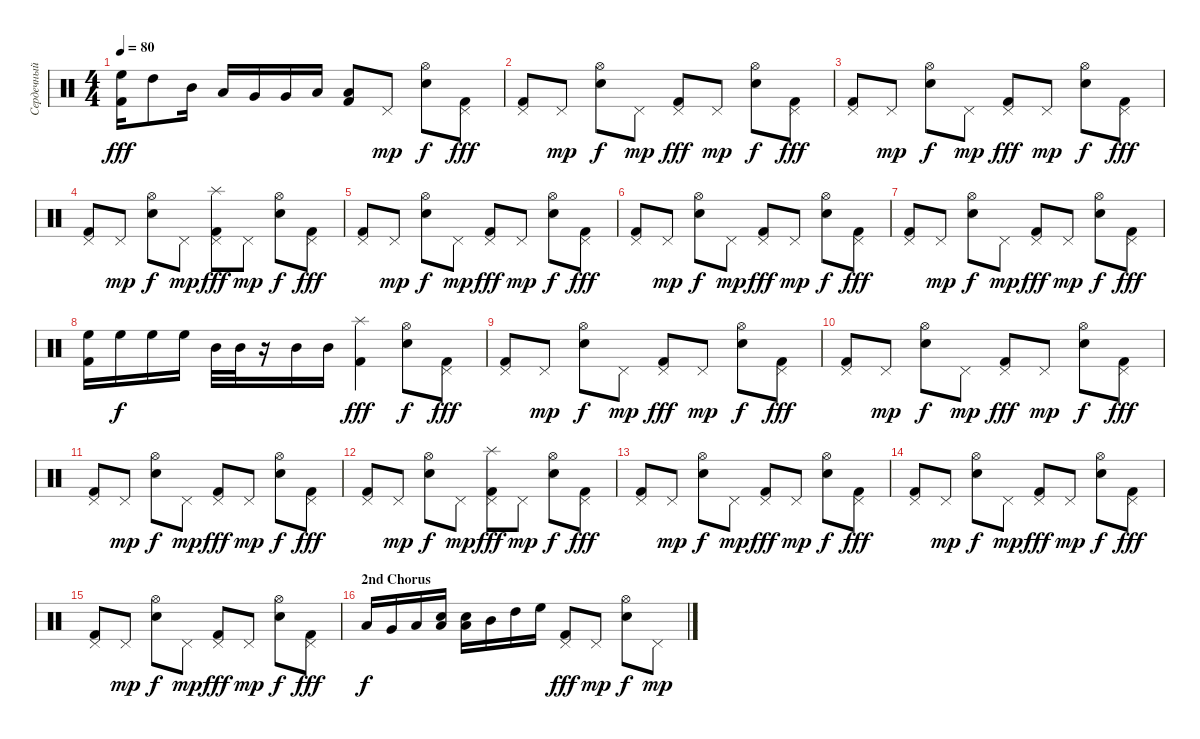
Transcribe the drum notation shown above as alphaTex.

\track ("Сердечный (Ударные)" "Сердечный ") {instrument percussion}
\staff {score}
\articulation defaults
\ts (4 4)
\tempo 80
\clef neutral
\ks c
("High Floor Tom (hit)" "Kick (hit) 2").16{dy fff} "High Tom (hit)".8 "Mid Tom (hit)".16 "Low Tom (hit)".16 "Very Low Tom (hit)".16 "Very Low Tom (hit)".16 "Low Floor Tom (hit)".16 ("Low Floor Tom (hit)" "Kick (hit) 2").8 "Pedal Hi-Hat (hit)".8{dy mp} ("Hi-Hat (open)" "Electric Snare (hit)").8{dy f} ("Pedal Hi-Hat (hit)" "Kick (hit) 2").8{dy fff} |
("Pedal Hi-Hat (hit)" "Kick (hit) 2").8 "Pedal Hi-Hat (hit)".8{dy mp} ("Hi-Hat (open)" "Electric Snare (hit)").8{dy f} "Pedal Hi-Hat (hit)".8{dy mp} ("Pedal Hi-Hat (hit)" "Kick (hit) 2").8{dy fff} "Pedal Hi-Hat (hit)".8{dy mp} ("Hi-Hat (open)" "Electric Snare (hit)").8{dy f} ("Pedal Hi-Hat (hit)" "Kick (hit) 2").8{dy fff} |
("Pedal Hi-Hat (hit)" "Kick (hit) 2").8 "Pedal Hi-Hat (hit)".8{dy mp} ("Hi-Hat (open)" "Electric Snare (hit)").8{dy f} "Pedal Hi-Hat (hit)".8{dy mp} ("Pedal Hi-Hat (hit)" "Kick (hit) 2").8{dy fff} "Pedal Hi-Hat (hit)".8{dy mp} ("Hi-Hat (open)" "Electric Snare (hit)").8{dy f} ("Pedal Hi-Hat (hit)" "Kick (hit) 2").8{dy fff} |
("Pedal Hi-Hat (hit)" "Kick (hit) 2").8 "Pedal Hi-Hat (hit)".8{dy mp} ("Hi-Hat (open)" "Electric Snare (hit)").8{dy f} "Pedal Hi-Hat (hit)".8{dy mp} ("Pedal Hi-Hat (hit)" "Kick (hit) 2" "Splash (hit)").8{dy fff} "Pedal Hi-Hat (hit)".8{dy mp} ("Hi-Hat (open)" "Electric Snare (hit)").8{dy f} ("Pedal Hi-Hat (hit)" "Kick (hit) 2").8{dy fff} |
("Pedal Hi-Hat (hit)" "Kick (hit) 2").8 "Pedal Hi-Hat (hit)".8{dy mp} ("Hi-Hat (open)" "Electric Snare (hit)").8{dy f} "Pedal Hi-Hat (hit)".8{dy mp} ("Pedal Hi-Hat (hit)" "Kick (hit) 2").8{dy fff} "Pedal Hi-Hat (hit)".8{dy mp} ("Hi-Hat (open)" "Electric Snare (hit)").8{dy f} ("Pedal Hi-Hat (hit)" "Kick (hit) 2").8{dy fff} |
("Pedal Hi-Hat (hit)" "Kick (hit) 2").8 "Pedal Hi-Hat (hit)".8{dy mp} ("Hi-Hat (open)" "Electric Snare (hit)").8{dy f} "Pedal Hi-Hat (hit)".8{dy mp} ("Pedal Hi-Hat (hit)" "Kick (hit) 2").8{dy fff} "Pedal Hi-Hat (hit)".8{dy mp} ("Hi-Hat (open)" "Electric Snare (hit)").8{dy f} ("Pedal Hi-Hat (hit)" "Kick (hit) 2").8{dy fff} |
("Pedal Hi-Hat (hit)" "Kick (hit) 2").8 "Pedal Hi-Hat (hit)".8{dy mp} ("Hi-Hat (open)" "Electric Snare (hit)").8{dy f} "Pedal Hi-Hat (hit)".8{dy mp} ("Pedal Hi-Hat (hit)" "Kick (hit) 2").8{dy fff} "Pedal Hi-Hat (hit)".8{dy mp} ("Hi-Hat (open)" "Electric Snare (hit)").8{dy f} ("Pedal Hi-Hat (hit)" "Kick (hit) 2").8{dy fff} |
("Kick (hit) 2" "High Floor Tom (hit)").16 "High Floor Tom (hit)".16{dy f} "High Floor Tom (hit)".16 "High Floor Tom (hit)".16 "Mid Tom (hit)".32 "Mid Tom (hit)".32 r.16 "Mid Tom (hit)".16 "Mid Tom (hit)".16 ("Splash (hit)" "Kick (hit) 2").4{dy fff} ("Hi-Hat (open)" "Electric Snare (hit)").8{dy f} ("Pedal Hi-Hat (hit)" "Kick (hit) 2").8{dy fff} |
("Pedal Hi-Hat (hit)" "Kick (hit) 2").8 "Pedal Hi-Hat (hit)".8{dy mp} ("Hi-Hat (open)" "Electric Snare (hit)").8{dy f} "Pedal Hi-Hat (hit)".8{dy mp} ("Pedal Hi-Hat (hit)" "Kick (hit) 2").8{dy fff} "Pedal Hi-Hat (hit)".8{dy mp} ("Hi-Hat (open)" "Electric Snare (hit)").8{dy f} ("Pedal Hi-Hat (hit)" "Kick (hit) 2").8{dy fff} |
("Pedal Hi-Hat (hit)" "Kick (hit) 2").8 "Pedal Hi-Hat (hit)".8{dy mp} ("Hi-Hat (open)" "Electric Snare (hit)").8{dy f} "Pedal Hi-Hat (hit)".8{dy mp} ("Pedal Hi-Hat (hit)" "Kick (hit) 2").8{dy fff} "Pedal Hi-Hat (hit)".8{dy mp} ("Hi-Hat (open)" "Electric Snare (hit)").8{dy f} ("Pedal Hi-Hat (hit)" "Kick (hit) 2").8{dy fff} |
("Pedal Hi-Hat (hit)" "Kick (hit) 2").8 "Pedal Hi-Hat (hit)".8{dy mp} ("Hi-Hat (open)" "Electric Snare (hit)").8{dy f} "Pedal Hi-Hat (hit)".8{dy mp} ("Pedal Hi-Hat (hit)" "Kick (hit) 2").8{dy fff} "Pedal Hi-Hat (hit)".8{dy mp} ("Hi-Hat (open)" "Electric Snare (hit)").8{dy f} ("Pedal Hi-Hat (hit)" "Kick (hit) 2").8{dy fff} |
("Pedal Hi-Hat (hit)" "Kick (hit) 2").8 "Pedal Hi-Hat (hit)".8{dy mp} ("Hi-Hat (open)" "Electric Snare (hit)").8{dy f} "Pedal Hi-Hat (hit)".8{dy mp} ("Pedal Hi-Hat (hit)" "Kick (hit) 2" "Splash (hit)").8{dy fff} "Pedal Hi-Hat (hit)".8{dy mp} ("Hi-Hat (open)" "Electric Snare (hit)").8{dy f} ("Pedal Hi-Hat (hit)" "Kick (hit) 2").8{dy fff} |
("Pedal Hi-Hat (hit)" "Kick (hit) 2").8 "Pedal Hi-Hat (hit)".8{dy mp} ("Hi-Hat (open)" "Electric Snare (hit)").8{dy f} "Pedal Hi-Hat (hit)".8{dy mp} ("Pedal Hi-Hat (hit)" "Kick (hit) 2").8{dy fff} "Pedal Hi-Hat (hit)".8{dy mp} ("Hi-Hat (open)" "Electric Snare (hit)").8{dy f} ("Pedal Hi-Hat (hit)" "Kick (hit) 2").8{dy fff} |
("Pedal Hi-Hat (hit)" "Kick (hit) 2").8 "Pedal Hi-Hat (hit)".8{dy mp} ("Hi-Hat (open)" "Electric Snare (hit)").8{dy f} "Pedal Hi-Hat (hit)".8{dy mp} ("Pedal Hi-Hat (hit)" "Kick (hit) 2").8{dy fff} "Pedal Hi-Hat (hit)".8{dy mp} ("Hi-Hat (open)" "Electric Snare (hit)").8{dy f} ("Pedal Hi-Hat (hit)" "Kick (hit) 2").8{dy fff} |
("Pedal Hi-Hat (hit)" "Kick (hit) 2").8 "Pedal Hi-Hat (hit)".8{dy mp} ("Hi-Hat (open)" "Electric Snare (hit)").8{dy f} "Pedal Hi-Hat (hit)".8{dy mp} ("Pedal Hi-Hat (hit)" "Kick (hit) 2").8{dy fff} "Pedal Hi-Hat (hit)".8{dy mp} ("Hi-Hat (open)" "Electric Snare (hit)").8{dy f} ("Pedal Hi-Hat (hit)" "Kick (hit) 2").8{dy fff} |
\section ("" "2nd Chorus")
"Low Tom (hit)".16{dy f} "Very Low Tom (hit)".16 "Low Floor Tom (hit)".16 ("Low Floor Tom (hit)" "Electric Snare (hit)").16 ("Electric Snare (hit)" "Low Tom (hit)").16 "Mid Tom (hit)".16 "High Tom (hit)".16 "High Floor Tom (hit)".16 ("Pedal Hi-Hat (hit)" "Kick (hit) 2").8{dy fff} "Pedal Hi-Hat (hit)".8{dy mp} ("Hi-Hat (open)" "Electric Snare (hit)").8{dy f} "Pedal Hi-Hat (hit)".8{dy mp}
